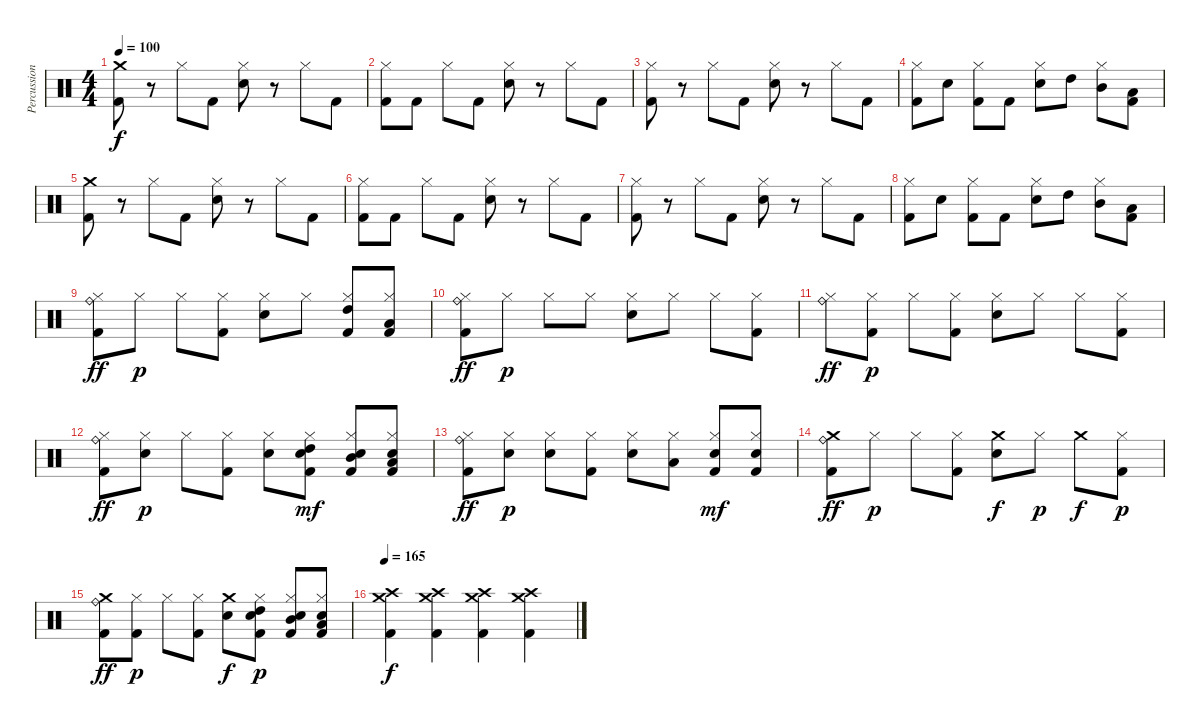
\track ("Percussion" "Percussion") {instrument percussion}
\staff {score}
\articulation defaults
\ts (4 4)
\tempo 100
\clef neutral
\ks c
("Crash medium (hit)" "Kick (hit) 2").8{dy f} r.8 "Hi-Hat (closed)".8 "Kick (hit) 2".8 ("Hi-Hat (closed)" "Snare (hit) 2").8 r.8 "Hi-Hat (closed)".8 "Kick (hit) 2".8 |
("Hi-Hat (closed)" "Kick (hit) 2").8 "Kick (hit) 2".8 "Hi-Hat (closed)".8 "Kick (hit) 2".8 ("Hi-Hat (closed)" "Snare (hit) 2").8 r.8 "Hi-Hat (closed)".8 "Kick (hit) 2".8 |
("Hi-Hat (closed)" "Kick (hit) 2").8 r.8 "Hi-Hat (closed)".8 "Kick (hit) 2".8 ("Hi-Hat (closed)" "Snare (hit) 2").8 r.8 "Hi-Hat (closed)".8 "Kick (hit) 2".8 |
("Hi-Hat (closed)" "Kick (hit) 2").8 "Snare (hit) 2".8 ("Hi-Hat (closed)" "Kick (hit) 2").8 "Kick (hit) 2".8 ("Hi-Hat (closed)" "Snare (hit) 2").8 "High Tom (hit)".8 ("Hi-Hat (closed)" "Mid Tom (hit)").8 ("Low Tom (hit)" "Kick (hit) 2").8 |
("Crash medium (hit)" "Kick (hit) 2").8 r.8 "Hi-Hat (closed)".8 "Kick (hit) 2".8 ("Hi-Hat (closed)" "Snare (hit) 2").8 r.8 "Hi-Hat (closed)".8 "Kick (hit) 2".8 |
("Hi-Hat (closed)" "Kick (hit) 2").8 "Kick (hit) 2".8 "Hi-Hat (closed)".8 "Kick (hit) 2".8 ("Hi-Hat (closed)" "Snare (hit) 2").8 r.8 "Hi-Hat (closed)".8 "Kick (hit) 2".8 |
("Hi-Hat (closed)" "Kick (hit) 2").8 r.8 "Hi-Hat (closed)".8 "Kick (hit) 2".8 ("Hi-Hat (closed)" "Snare (hit) 2").8 r.8 "Hi-Hat (closed)".8 "Kick (hit) 2".8 |
("Hi-Hat (closed)" "Kick (hit) 2").8 "Snare (hit) 2".8 ("Hi-Hat (closed)" "Kick (hit) 2").8 "Kick (hit) 2".8 ("Hi-Hat (closed)" "Snare (hit) 2").8 "High Tom (hit)".8 ("Hi-Hat (closed)" "Mid Tom (hit)").8 ("Low Tom (hit)" "Kick (hit) 2").8 |
("Hi-Hat (closed)" "Ride (bell)" "Kick (hit) 2").8{dy ff volume 14} "Hi-Hat (closed)".8{dy p} "Hi-Hat (closed)".8 ("Hi-Hat (closed)" "Kick (hit) 2").8 ("Hi-Hat (closed)" "Snare (hit) 2").8 "Hi-Hat (closed)".8 ("Hi-Hat (closed)" "High Tom (hit)" "Kick (hit) 2").8 ("Hi-Hat (closed)" "Low Tom (hit)" "Kick (hit) 2").8 |
("Hi-Hat (closed)" "Ride (bell)" "Kick (hit) 2").8{dy ff} "Hi-Hat (closed)".8{dy p} "Hi-Hat (closed)".8 "Hi-Hat (closed)".8 ("Hi-Hat (closed)" "Snare (hit) 2").8 "Hi-Hat (closed)".8 "Hi-Hat (closed)".8 ("Hi-Hat (closed)" "Kick (hit) 2").8 |
("Hi-Hat (closed)" "Ride (bell)").8{dy ff} ("Hi-Hat (closed)" "Kick (hit) 2").8{dy p} "Hi-Hat (closed)".8 ("Hi-Hat (closed)" "Kick (hit) 2").8 ("Hi-Hat (closed)" "Snare (hit) 2").8 "Hi-Hat (closed)".8 "Hi-Hat (closed)".8 ("Hi-Hat (closed)" "Kick (hit) 2").8 |
("Hi-Hat (closed)" "Ride (bell)" "Kick (hit) 2").8{dy ff} ("Hi-Hat (closed)" "Snare (hit) 2").8{dy p} "Hi-Hat (closed)".8 ("Hi-Hat (closed)" "Kick (hit) 2").8 ("Hi-Hat (closed)" "Snare (hit) 2").8 ("Hi-Hat (closed)" "High Tom (hit)" "Snare (hit) 2" "Kick (hit) 2").8{dy mf} ("Hi-Hat (closed)" "Mid Tom (hit)" "Snare (hit) 2" "Kick (hit) 2").8 ("Hi-Hat (closed)" "Low Tom (hit)" "Snare (hit) 2" "Kick (hit) 2").8 |
("Hi-Hat (closed)" "Ride (bell)" "Kick (hit) 2").8{dy ff} ("Hi-Hat (closed)" "Snare (hit) 2").8{dy p} ("Hi-Hat (closed)" "Snare (hit) 2").8 ("Hi-Hat (closed)" "Kick (hit) 2").8 ("Hi-Hat (closed)" "Snare (hit) 2").8 ("Hi-Hat (closed)" "Low Tom (hit)").8 ("Hi-Hat (closed)" "Snare (hit) 2" "Kick (hit) 2").8{dy mf} ("Hi-Hat (closed)" "Snare (hit) 2" "Kick (hit) 2").8 |
("Crash medium (hit)" "Ride (bell)" "Kick (hit) 2").8{dy ff} "Hi-Hat (closed)".8{dy p} "Hi-Hat (closed)".8 ("Hi-Hat (closed)" "Kick (hit) 2").8 ("Crash medium (hit)" "Snare (hit) 2").8{dy f} "Hi-Hat (closed)".8{dy p} "Crash medium (hit)".8{dy f} ("Hi-Hat (closed)" "Kick (hit) 2").8{dy p} |
("Crash medium (hit)" "Ride (bell)" "Kick (hit) 2").8{dy ff} ("Hi-Hat (closed)" "Kick (hit) 2").8{dy p} "Hi-Hat (closed)".8 ("Hi-Hat (closed)" "Kick (hit) 2").8 ("Crash medium (hit)" "Snare (hit) 2").8{dy f} ("Hi-Hat (closed)" "High Tom (hit)" "Snare (hit) 2" "Kick (hit) 2").8{dy p} ("Hi-Hat (closed)" "Mid Tom (hit)" "Snare (hit) 2" "Kick (hit) 2").8 ("Hi-Hat (closed)" "Low Tom (hit)" "Snare (hit) 2" "Kick (hit) 2").8 |
\tempo 165
("Crash medium (hit)" "Crash high (hit)" "Kick (hit) 2").4{dy f} ("Crash medium (hit)" "Crash high (hit)" "Kick (hit) 2").4 ("Crash medium (hit)" "Crash high (hit)" "Kick (hit) 2").4 ("Crash medium (hit)" "Crash high (hit)" "Kick (hit) 2").4
